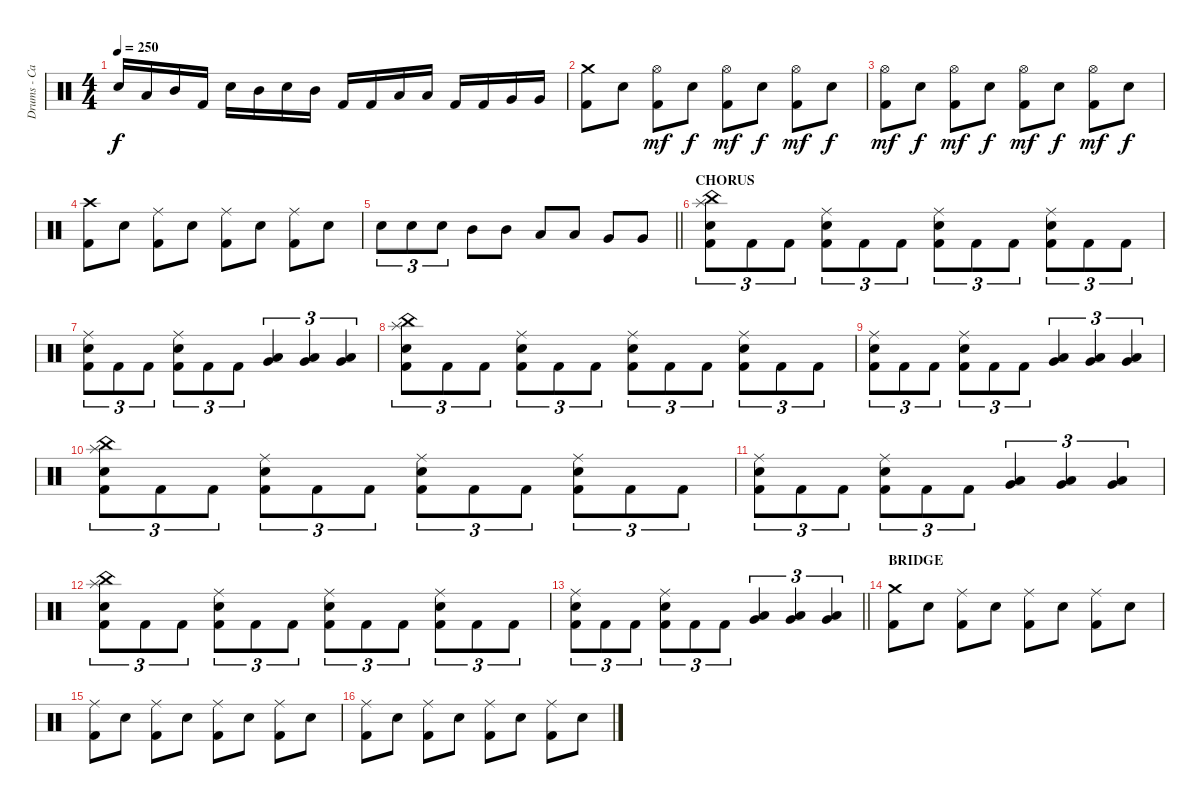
\track ("Drums - Carlos Cruz" "Drums - Ca") {instrument percussion}
\staff {score}
\articulation defaults
\ts (4 4)
\tempo 250
\clef neutral
\ks c "Snare (hit) 2".16{dy f} "Low Tom (hit)".16 "Mid Tom (hit)".16 "Kick (hit) 2".16 "Snare (hit) 2".16 "Mid Tom (hit)".16 "Snare (hit) 2".16 "Mid Tom (hit)".16 "Kick (hit) 2".16 "Kick (hit) 2".16 "Low Tom (hit)".16 "Low Tom (hit)".16 "Kick (hit) 2".16 "Kick (hit) 2".16 "Very Low Tom (hit)".16 "Very Low Tom (hit)".16
|
("Crash medium (hit)" "Kick (hit) 2").8 "Snare (hit) 2".8 ("Hi-Hat (open)" "Kick (hit) 2").8{dy mf} "Snare (hit) 2".8{dy f} ("Hi-Hat (open)" "Kick (hit) 2").8{dy mf} "Snare (hit) 2".8{dy f} ("Hi-Hat (open)" "Kick (hit) 2").8{dy mf} "Snare (hit) 2".8{dy f} |
("Hi-Hat (open)" "Kick (hit) 2").8{dy mf} "Snare (hit) 2".8{dy f} ("Hi-Hat (open)" "Kick (hit) 2").8{dy mf} "Snare (hit) 2".8{dy f} ("Hi-Hat (open)" "Kick (hit) 2").8{dy mf} "Snare (hit) 2".8{dy f} ("Hi-Hat (open)" "Kick (hit) 2").8{dy mf} "Snare (hit) 2".8{dy f} |
("Crash high (hit)" "Kick (hit) 2").8 "Snare (hit) 2".8 ("Ride (middle)" "Kick (hit) 2").8 "Snare (hit) 2".8 ("Ride (middle)" "Kick (hit) 2").8 "Snare (hit) 2".8 ("Ride (middle)" "Kick (hit) 2").8 "Snare (hit) 2".8 |
\barLineRight lightlight "Snare (hit) 2".8{tu (3 2)} "Snare (hit) 2".8{tu (3 2)} "Snare (hit) 2".8{tu (3 2)} "Mid Tom (hit)".8 "Mid Tom (hit)".8 "Low Tom (hit)".8 "Low Tom (hit)".8 "Very Low Tom (hit)".8 "Very Low Tom (hit)".8
|
\section ("" "CHORUS")
("China (hit)" "Splash (hit)" "Snare (hit) 2" "Kick (hit) 2").8{tu (3 2)} "Kick (hit) 2".8{tu (3 2)} "Kick (hit) 2".8{tu (3 2)} ("Ride (middle)" "Snare (hit) 2" "Kick (hit) 2").8{tu (3 2)} "Kick (hit) 2".8{tu (3 2)} "Kick (hit) 2".8{tu (3 2)} ("Ride (middle)" "Snare (hit) 2" "Kick (hit) 2").8{tu (3 2)} "Kick (hit) 2".8{tu (3 2)} "Kick (hit) 2".8{tu (3 2)} ("Ride (middle)" "Snare (hit) 2" "Kick (hit) 2").8{tu (3 2)} "Kick (hit) 2".8{tu (3 2)} "Kick (hit) 2".8{tu (3 2)} |
("Ride (middle)" "Snare (hit) 2" "Kick (hit) 2").8{tu (3 2)} "Kick (hit) 2".8{tu (3 2)} "Kick (hit) 2".8{tu (3 2)} ("Ride (middle)" "Snare (hit) 2" "Kick (hit) 2").8{tu (3 2)} "Kick (hit) 2".8{tu (3 2)} "Kick (hit) 2".8{tu (3 2)} ("Low Tom (hit)" "Very Low Tom (hit)").4{tu (3 2)} ("Low Tom (hit)" "Very Low Tom (hit)").4{tu (3 2)} ("Low Tom (hit)" "Very Low Tom (hit)").4{tu (3 2)} |
("China (hit)" "Splash (hit)" "Snare (hit) 2" "Kick (hit) 2").8{tu (3 2)} "Kick (hit) 2".8{tu (3 2)} "Kick (hit) 2".8{tu (3 2)} ("Ride (middle)" "Snare (hit) 2" "Kick (hit) 2").8{tu (3 2)} "Kick (hit) 2".8{tu (3 2)} "Kick (hit) 2".8{tu (3 2)} ("Ride (middle)" "Snare (hit) 2" "Kick (hit) 2").8{tu (3 2)} "Kick (hit) 2".8{tu (3 2)} "Kick (hit) 2".8{tu (3 2)} ("Ride (middle)" "Snare (hit) 2" "Kick (hit) 2").8{tu (3 2)} "Kick (hit) 2".8{tu (3 2)} "Kick (hit) 2".8{tu (3 2)} |
("Ride (middle)" "Snare (hit) 2" "Kick (hit) 2").8{tu (3 2)} "Kick (hit) 2".8{tu (3 2)} "Kick (hit) 2".8{tu (3 2)} ("Ride (middle)" "Snare (hit) 2" "Kick (hit) 2").8{tu (3 2)} "Kick (hit) 2".8{tu (3 2)} "Kick (hit) 2".8{tu (3 2)} ("Low Tom (hit)" "Very Low Tom (hit)").4{tu (3 2)} ("Low Tom (hit)" "Very Low Tom (hit)").4{tu (3 2)} ("Low Tom (hit)" "Very Low Tom (hit)").4{tu (3 2)} |
("China (hit)" "Splash (hit)" "Snare (hit) 2" "Kick (hit) 2").8{tu (3 2)} "Kick (hit) 2".8{tu (3 2)} "Kick (hit) 2".8{tu (3 2)} ("Ride (middle)" "Snare (hit) 2" "Kick (hit) 2").8{tu (3 2)} "Kick (hit) 2".8{tu (3 2)} "Kick (hit) 2".8{tu (3 2)} ("Ride (middle)" "Snare (hit) 2" "Kick (hit) 2").8{tu (3 2)} "Kick (hit) 2".8{tu (3 2)} "Kick (hit) 2".8{tu (3 2)} ("Ride (middle)" "Snare (hit) 2" "Kick (hit) 2").8{tu (3 2)} "Kick (hit) 2".8{tu (3 2)} "Kick (hit) 2".8{tu (3 2)} |
("Ride (middle)" "Snare (hit) 2" "Kick (hit) 2").8{tu (3 2)} "Kick (hit) 2".8{tu (3 2)} "Kick (hit) 2".8{tu (3 2)} ("Ride (middle)" "Snare (hit) 2" "Kick (hit) 2").8{tu (3 2)} "Kick (hit) 2".8{tu (3 2)} "Kick (hit) 2".8{tu (3 2)} ("Low Tom (hit)" "Very Low Tom (hit)").4{tu (3 2)} ("Low Tom (hit)" "Very Low Tom (hit)").4{tu (3 2)} ("Low Tom (hit)" "Very Low Tom (hit)").4{tu (3 2)} |
("China (hit)" "Splash (hit)" "Snare (hit) 2" "Kick (hit) 2").8{tu (3 2)} "Kick (hit) 2".8{tu (3 2)} "Kick (hit) 2".8{tu (3 2)} ("Ride (middle)" "Snare (hit) 2" "Kick (hit) 2").8{tu (3 2)} "Kick (hit) 2".8{tu (3 2)} "Kick (hit) 2".8{tu (3 2)} ("Ride (middle)" "Snare (hit) 2" "Kick (hit) 2").8{tu (3 2)} "Kick (hit) 2".8{tu (3 2)} "Kick (hit) 2".8{tu (3 2)} ("Ride (middle)" "Snare (hit) 2" "Kick (hit) 2").8{tu (3 2)} "Kick (hit) 2".8{tu (3 2)} "Kick (hit) 2".8{tu (3 2)} |
\barLineRight lightlight
("Ride (middle)" "Snare (hit) 2" "Kick (hit) 2").8{tu (3 2)} "Kick (hit) 2".8{tu (3 2)} "Kick (hit) 2".8{tu (3 2)} ("Ride (middle)" "Snare (hit) 2" "Kick (hit) 2").8{tu (3 2)} "Kick (hit) 2".8{tu (3 2)} "Kick (hit) 2".8{tu (3 2)} ("Low Tom (hit)" "Very Low Tom (hit)").4{tu (3 2)} ("Low Tom (hit)" "Very Low Tom (hit)").4{tu (3 2)} ("Low Tom (hit)" "Very Low Tom (hit)").4{tu (3 2)} |
\section ("" "BRIDGE")
("Crash medium (hit)" "Kick (hit) 2").8 "Snare (hit) 2".8 ("Ride (middle)" "Kick (hit) 2").8 "Snare (hit) 2".8 ("Ride (middle)" "Kick (hit) 2").8 "Snare (hit) 2".8 ("Ride (middle)" "Kick (hit) 2").8 "Snare (hit) 2".8 |
("Ride (middle)" "Kick (hit) 2").8 "Snare (hit) 2".8 ("Ride (middle)" "Kick (hit) 2").8 "Snare (hit) 2".8 ("Ride (middle)" "Kick (hit) 2").8 "Snare (hit) 2".8 ("Ride (middle)" "Kick (hit) 2").8 "Snare (hit) 2".8 |
("Ride (middle)" "Kick (hit) 2").8 "Snare (hit) 2".8 ("Ride (middle)" "Kick (hit) 2").8 "Snare (hit) 2".8 ("Ride (middle)" "Kick (hit) 2").8 "Snare (hit) 2".8 ("Ride (middle)" "Kick (hit) 2").8 "Snare (hit) 2".8
